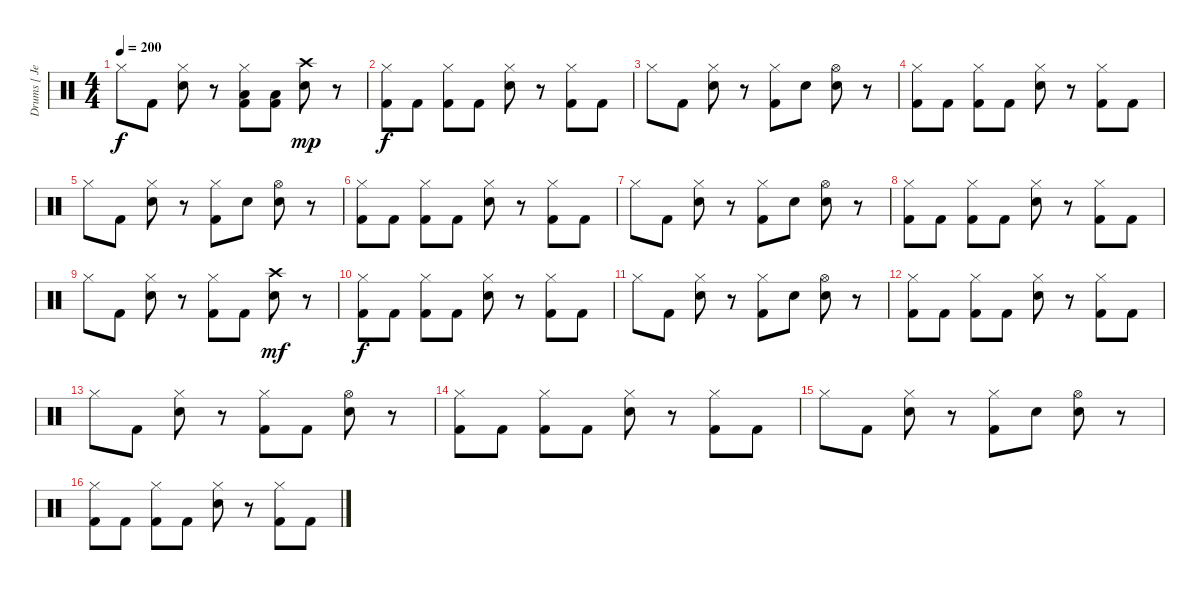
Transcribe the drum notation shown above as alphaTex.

\track ("Drums [ Jesse Ingelevics ]" "Drums [ Je") {instrument percussion}
\staff {score}
\articulation defaults
\ts (4 4)
\tempo 200
\clef neutral
\ks c "Hi-Hat (closed)".8{dy f} "Kick (hit) 2".8
("Hi-Hat (closed)" "Electric Snare (hit)").8 r.8 ("Hi-Hat (closed)" "Low Floor Tom (hit)" "Kick (hit) 2").8 ("Low Floor Tom (hit)" "Kick (hit) 2").8 ("Crash high (hit)" "Electric Snare (hit)").8{dy mp} r.8 |
("Hi-Hat (closed)" "Kick (hit) 2").8{dy f} "Kick (hit) 2".8 ("Hi-Hat (closed)" "Kick (hit) 2").8 "Kick (hit) 2".8 ("Hi-Hat (closed)" "Electric Snare (hit)").8 r.8 ("Hi-Hat (closed)" "Kick (hit) 2").8 "Kick (hit) 2".8 |
"Hi-Hat (closed)".8 "Kick (hit) 2".8 ("Hi-Hat (closed)" "Electric Snare (hit)").8 r.8 ("Hi-Hat (closed)" "Kick (hit) 2").8 "Electric Snare (hit)".8 ("Hi-Hat (open)" "Electric Snare (hit)").8 r.8 |
("Hi-Hat (closed)" "Kick (hit) 2").8 "Kick (hit) 2".8 ("Hi-Hat (closed)" "Kick (hit) 2").8 "Kick (hit) 2".8 ("Hi-Hat (closed)" "Electric Snare (hit)").8 r.8 ("Hi-Hat (closed)" "Kick (hit) 2").8 "Kick (hit) 2".8 |
"Hi-Hat (closed)".8 "Kick (hit) 2".8 ("Hi-Hat (closed)" "Electric Snare (hit)").8 r.8 ("Hi-Hat (closed)" "Kick (hit) 2").8 "Electric Snare (hit)".8 ("Hi-Hat (open)" "Electric Snare (hit)").8 r.8 |
("Hi-Hat (closed)" "Kick (hit) 2").8 "Kick (hit) 2".8 ("Hi-Hat (closed)" "Kick (hit) 2").8 "Kick (hit) 2".8 ("Hi-Hat (closed)" "Electric Snare (hit)").8 r.8 ("Hi-Hat (closed)" "Kick (hit) 2").8 "Kick (hit) 2".8 |
"Hi-Hat (closed)".8 "Kick (hit) 2".8 ("Hi-Hat (closed)" "Electric Snare (hit)").8 r.8 ("Hi-Hat (closed)" "Kick (hit) 2").8 "Electric Snare (hit)".8 ("Hi-Hat (open)" "Electric Snare (hit)").8 r.8 |
("Hi-Hat (closed)" "Kick (hit) 2").8 "Kick (hit) 2".8 ("Hi-Hat (closed)" "Kick (hit) 2").8 "Kick (hit) 2".8 ("Hi-Hat (closed)" "Electric Snare (hit)").8 r.8 ("Hi-Hat (closed)" "Kick (hit) 2").8 "Kick (hit) 2".8 |
"Hi-Hat (closed)".8 "Kick (hit) 2".8 ("Hi-Hat (closed)" "Electric Snare (hit)").8 r.8 ("Hi-Hat (closed)" "Kick (hit) 2").8 "Kick (hit) 2".8 ("Crash high (hit)" "Electric Snare (hit)").8{dy mf} r.8 |
("Hi-Hat (closed)" "Kick (hit) 2").8{dy f} "Kick (hit) 2".8 ("Hi-Hat (closed)" "Kick (hit) 2").8 "Kick (hit) 2".8 ("Hi-Hat (closed)" "Electric Snare (hit)").8 r.8 ("Hi-Hat (closed)" "Kick (hit) 2").8 "Kick (hit) 2".8 |
"Hi-Hat (closed)".8 "Kick (hit) 2".8 ("Hi-Hat (closed)" "Electric Snare (hit)").8 r.8 ("Hi-Hat (closed)" "Kick (hit) 2").8 "Electric Snare (hit)".8 ("Hi-Hat (open)" "Electric Snare (hit)").8 r.8 |
("Hi-Hat (closed)" "Kick (hit) 2").8 "Kick (hit) 2".8 ("Hi-Hat (closed)" "Kick (hit) 2").8 "Kick (hit) 2".8 ("Hi-Hat (closed)" "Electric Snare (hit)").8 r.8 ("Hi-Hat (closed)" "Kick (hit) 2").8 "Kick (hit) 2".8 |
"Hi-Hat (closed)".8 "Kick (hit) 2".8 ("Hi-Hat (closed)" "Electric Snare (hit)").8 r.8 ("Hi-Hat (closed)" "Kick (hit) 2").8 "Kick (hit) 2".8 ("Hi-Hat (open)" "Electric Snare (hit)").8 r.8 |
("Hi-Hat (closed)" "Kick (hit) 2").8 "Kick (hit) 2".8 ("Hi-Hat (closed)" "Kick (hit) 2").8 "Kick (hit) 2".8 ("Hi-Hat (closed)" "Electric Snare (hit)").8 r.8 ("Hi-Hat (closed)" "Kick (hit) 2").8 "Kick (hit) 2".8 |
"Hi-Hat (closed)".8 "Kick (hit) 2".8 ("Hi-Hat (closed)" "Electric Snare (hit)").8 r.8 ("Hi-Hat (closed)" "Kick (hit) 2").8 "Electric Snare (hit)".8 ("Hi-Hat (open)" "Electric Snare (hit)").8 r.8 |
("Hi-Hat (closed)" "Kick (hit) 2").8 "Kick (hit) 2".8 ("Hi-Hat (closed)" "Kick (hit) 2").8 "Kick (hit) 2".8 ("Hi-Hat (closed)" "Electric Snare (hit)").8 r.8 ("Hi-Hat (closed)" "Kick (hit) 2").8 "Kick (hit) 2".8
